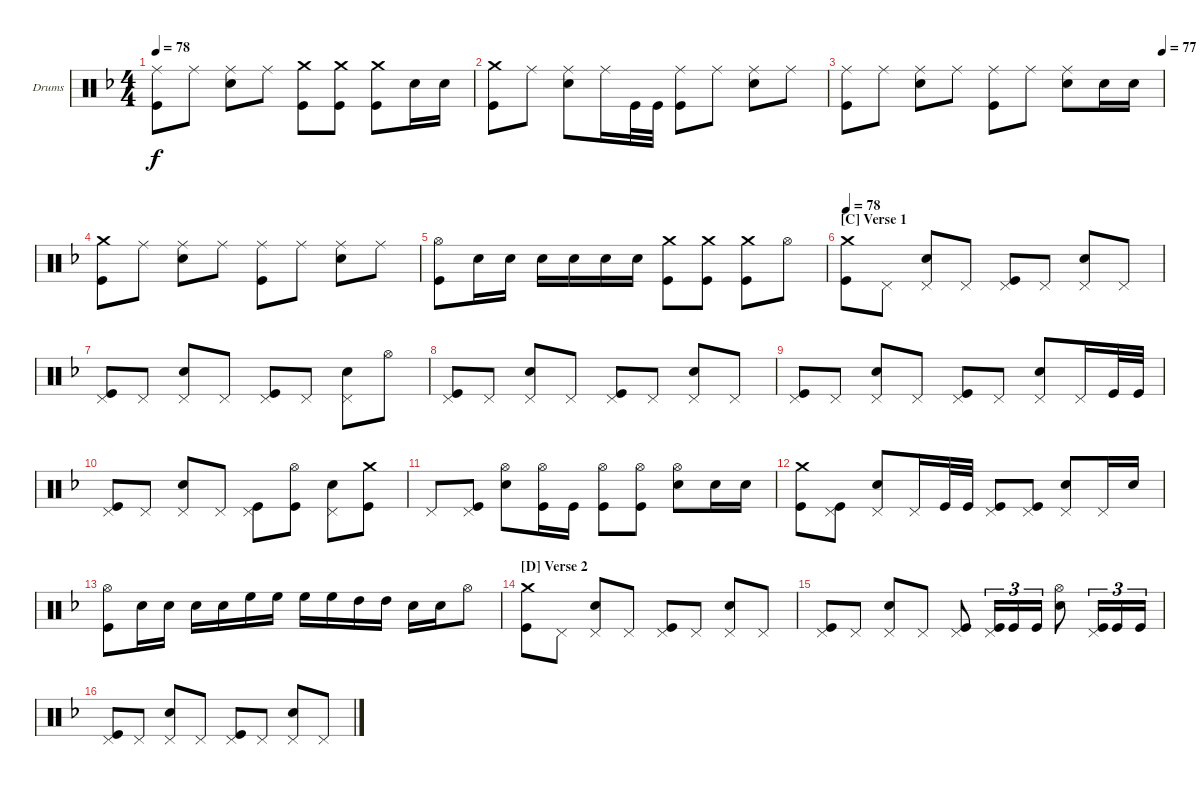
\bracketExtendMode groupsimilarinstruments
\firstSystemTrackNameOrientation horizontal
\otherSystemsTrackNameOrientation horizontal
\track ("Vinny Appice" "Drums") {instrument percussion}
\staff {score}
\articulation defaults
\ts (4 4)
\tempo 78
\clef neutral
\ks dminor
("Ride (middle)" "Kick (hit)").8{dy f} "Ride (middle)".8 ("Ride (middle)" "Snare (hit) 2").8 "Ride (middle)".8 ("Crash medium (hit)" "Kick (hit)").8 ("Crash medium (hit)" "Kick (hit)").8 ("Crash medium (hit)" "Kick (hit)").8 "Snare (hit) 2".16 "Snare (hit) 2".16 |
("Crash medium (hit)" "Kick (hit)").8 "Ride (middle)".8 ("Ride (middle)" "Snare (hit) 2").8 "Ride (middle)".16 "Kick (hit)".32 "Kick (hit)".32 ("Ride (middle)" "Kick (hit)").8 "Ride (middle)".8 ("Ride (middle)" "Snare (hit) 2").8 "Ride (middle)".8 |
\tempo (77 1)
("Ride (middle)" "Kick (hit)").8 "Ride (middle)".8 ("Ride (middle)" "Snare (hit) 2").8 "Ride (middle)".8 ("Ride (middle)" "Kick (hit)").8 "Ride (middle)".8 ("Ride (middle)" "Snare (hit) 2").8 "Snare (hit) 2".16 "Snare (hit) 2".16 |
("Crash medium (hit)" "Kick (hit)").8 "Ride (middle)".8 ("Ride (middle)" "Snare (hit) 2").8 "Ride (middle)".8 ("Ride (middle)" "Kick (hit)").8 "Ride (middle)".8 ("Ride (middle)" "Snare (hit) 2").8 "Ride (middle)".8 |
("Hi-Hat (open)" "Kick (hit)").8 "Snare (hit) 2".16 "Snare (hit) 2".16 "Snare (hit) 2".16 "Snare (hit) 2".16 "Snare (hit) 2".16 "Snare (hit) 2".16 ("Crash medium (hit)" "Kick (hit)").8 ("Crash medium (hit)" "Kick (hit)").8 ("Crash medium (hit)" "Kick (hit)").8 "Hi-Hat (open)".8 |
\section ("C" "Verse 1")
\tempo 78
("Crash medium (hit)" "Kick (hit)").8 "Pedal Hi-Hat (hit)".8 ("Pedal Hi-Hat (hit)" "Snare (hit) 2").8 "Pedal Hi-Hat (hit)".8 ("Pedal Hi-Hat (hit)" "Kick (hit)").8 "Pedal Hi-Hat (hit)".8 ("Pedal Hi-Hat (hit)" "Snare (hit) 2").8 "Pedal Hi-Hat (hit)".8 |
("Pedal Hi-Hat (hit)" "Kick (hit)").8 "Pedal Hi-Hat (hit)".8 ("Pedal Hi-Hat (hit)" "Snare (hit) 2").8 "Pedal Hi-Hat (hit)".8 ("Pedal Hi-Hat (hit)" "Kick (hit)").8 "Pedal Hi-Hat (hit)".8 ("Pedal Hi-Hat (hit)" "Snare (hit) 2").8 "Hi-Hat (open)".8 |
("Pedal Hi-Hat (hit)" "Kick (hit)").8 "Pedal Hi-Hat (hit)".8 ("Pedal Hi-Hat (hit)" "Snare (hit) 2").8 "Pedal Hi-Hat (hit)".8 ("Pedal Hi-Hat (hit)" "Kick (hit)").8 "Pedal Hi-Hat (hit)".8 ("Pedal Hi-Hat (hit)" "Snare (hit) 2").8 "Pedal Hi-Hat (hit)".8 |
("Pedal Hi-Hat (hit)" "Kick (hit)").8 "Pedal Hi-Hat (hit)".8 ("Pedal Hi-Hat (hit)" "Snare (hit) 2").8 "Pedal Hi-Hat (hit)".8 ("Pedal Hi-Hat (hit)" "Kick (hit)").8 "Pedal Hi-Hat (hit)".8 ("Pedal Hi-Hat (hit)" "Snare (hit) 2").8 "Pedal Hi-Hat (hit)".16 "Kick (hit)".32 "Kick (hit)".32 |
("Pedal Hi-Hat (hit)" "Kick (hit)").8 "Pedal Hi-Hat (hit)".8 ("Pedal Hi-Hat (hit)" "Snare (hit) 2").8 "Pedal Hi-Hat (hit)".8 ("Pedal Hi-Hat (hit)" "Kick (hit)").8 ("Hi-Hat (open)" "Kick (hit)").8 ("Pedal Hi-Hat (hit)" "Snare (hit) 2").8 ("Crash medium (hit)" "Kick (hit)").8 |
"Pedal Hi-Hat (hit)".8 ("Pedal Hi-Hat (hit)" "Kick (hit)").8 ("Hi-Hat (open)" "Snare (hit) 2").8 ("Hi-Hat (open)" "Kick (hit)").16 "Kick (hit)".16 ("Hi-Hat (open)" "Kick (hit)").8 ("Hi-Hat (open)" "Kick (hit)").8 ("Hi-Hat (open)" "Snare (hit) 2").8 "Snare (hit) 2".16 "Snare (hit) 2".16 |
("Crash medium (hit)" "Kick (hit)").8 ("Pedal Hi-Hat (hit)" "Kick (hit)").8 ("Pedal Hi-Hat (hit)" "Snare (hit) 2").8 "Pedal Hi-Hat (hit)".16 "Kick (hit)".32 "Kick (hit)".32 ("Pedal Hi-Hat (hit)" "Kick (hit)").8 ("Pedal Hi-Hat (hit)" "Kick (hit)").8 ("Pedal Hi-Hat (hit)" "Snare (hit) 2").8 "Pedal Hi-Hat (hit)".16 "Snare (hit) 2".16 |
("Hi-Hat (open)" "Kick (hit)").8 "Snare (hit) 2".16 "Snare (hit) 2".16 "Snare (hit) 2".16 "Snare (hit) 2".16 "High Floor Tom (hit)".16 "High Floor Tom (hit)".16 "High Floor Tom (hit)".16 "High Floor Tom (hit)".16 "High Tom (hit)".16 "High Tom (hit)".16 "Snare (hit) 2".16 "Snare (hit) 2".16 "Hi-Hat (open)".8 |
\section ("D" "Verse 2")
("Crash medium (hit)" "Kick (hit)").8 "Pedal Hi-Hat (hit)".8 ("Pedal Hi-Hat (hit)" "Snare (hit) 2").8 "Pedal Hi-Hat (hit)".8 ("Pedal Hi-Hat (hit)" "Kick (hit)").8 "Pedal Hi-Hat (hit)".8 ("Pedal Hi-Hat (hit)" "Snare (hit) 2").8 "Pedal Hi-Hat (hit)".8 |
("Pedal Hi-Hat (hit)" "Kick (hit)").8 "Pedal Hi-Hat (hit)".8 ("Pedal Hi-Hat (hit)" "Snare (hit) 2").8 "Pedal Hi-Hat (hit)".8 ("Pedal Hi-Hat (hit)" "Kick (hit)").8 ("Pedal Hi-Hat (hit)" "Kick (hit)").16{tu (3 2)} "Kick (hit)".16{tu (3 2)} "Kick (hit)".16{tu (3 2)} ("Hi-Hat (open)" "Snare (hit) 2").8 ("Pedal Hi-Hat (hit)" "Kick (hit)").16{tu (3 2)} "Kick (hit)".16{tu (3 2)} "Kick (hit)".16{tu (3 2)} |
("Pedal Hi-Hat (hit)" "Kick (hit)").8 "Pedal Hi-Hat (hit)".8 ("Pedal Hi-Hat (hit)" "Snare (hit) 2").8 "Pedal Hi-Hat (hit)".8 ("Pedal Hi-Hat (hit)" "Kick (hit)").8 "Pedal Hi-Hat (hit)".8 ("Pedal Hi-Hat (hit)" "Snare (hit) 2").8 "Pedal Hi-Hat (hit)".8
